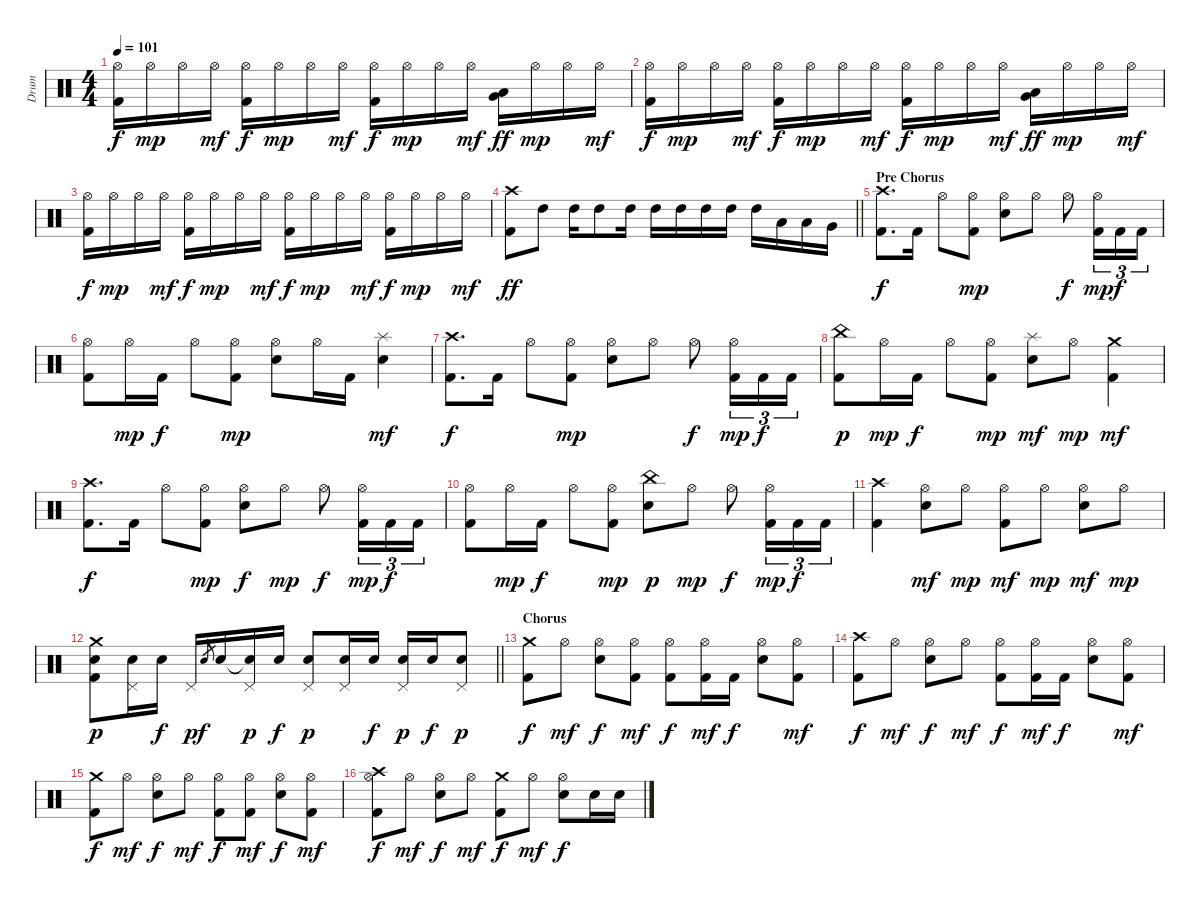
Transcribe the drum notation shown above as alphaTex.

\track ("Drum" "Drum") {instrument percussion}
\staff {score}
\articulation defaults
\ts (4 4)
\tempo 101
\clef neutral
\ks c
("Hi-Hat (open)" "Kick (hit) 2").16{dy f} "Hi-Hat (open)".16{dy mp} "Hi-Hat (open)".16 "Hi-Hat (open)".16{dy mf} ("Hi-Hat (open)" "Kick (hit) 2").16{dy f} "Hi-Hat (open)".16{dy mp} "Hi-Hat (open)".16 "Hi-Hat (open)".16{dy mf} ("Hi-Hat (open)" "Kick (hit) 2").16{dy f} "Hi-Hat (open)".16{dy mp} "Hi-Hat (open)".16 "Hi-Hat (open)".16{dy mf} ("Low Tom (hit)" "Very Low Tom (hit)").16{dy ff} "Hi-Hat (open)".16{dy mp} "Hi-Hat (open)".16 "Hi-Hat (open)".16{dy mf} |
("Hi-Hat (open)" "Kick (hit) 2").16{dy f} "Hi-Hat (open)".16{dy mp} "Hi-Hat (open)".16 "Hi-Hat (open)".16{dy mf} ("Hi-Hat (open)" "Kick (hit) 2").16{dy f} "Hi-Hat (open)".16{dy mp} "Hi-Hat (open)".16 "Hi-Hat (open)".16{dy mf} ("Hi-Hat (open)" "Kick (hit) 2").16{dy f} "Hi-Hat (open)".16{dy mp} "Hi-Hat (open)".16 "Hi-Hat (open)".16{dy mf} ("Very Low Tom (hit)" "Low Floor Tom (hit)").16{dy ff} "Hi-Hat (open)".16{dy mp} "Hi-Hat (open)".16 "Hi-Hat (open)".16{dy mf} |
("Hi-Hat (open)" "Kick (hit) 2").16{dy f} "Hi-Hat (open)".16{dy mp} "Hi-Hat (open)".16 "Hi-Hat (open)".16{dy mf} ("Hi-Hat (open)" "Kick (hit) 2").16{dy f} "Hi-Hat (open)".16{dy mp} "Hi-Hat (open)".16 "Hi-Hat (open)".16{dy mf} ("Hi-Hat (open)" "Kick (hit) 2").16{dy f} "Hi-Hat (open)".16{dy mp} "Hi-Hat (open)".16 "Hi-Hat (open)".16{dy mf} ("Hi-Hat (open)" "Kick (hit) 2").16{dy f} "Hi-Hat (open)".16{dy mp} "Hi-Hat (open)".16 "Hi-Hat (open)".16{dy mf} |
\barLineRight lightlight
("Crash high (hit)" "Kick (hit) 2").8{dy ff} "High Tom (hit)".8 "High Tom (hit)".16 "High Tom (hit)".8 "High Tom (hit)".16 "High Tom (hit)".16 "High Tom (hit)".16 "High Tom (hit)".16 "High Tom (hit)".16 "High Tom (hit)".16 "Low Tom (hit)".16 "Low Tom (hit)".16 "Very Low Tom (hit)".16 |
\section ("" "Pre Chorus")
("Crash high (hit)" "Kick (hit) 2").8{d dy f} "Kick (hit) 2".16 "Hi-Hat (open)".8 ("Hi-Hat (open)" "Kick (hit) 2").8{dy mp} ("Hi-Hat (open)" "Snare (hit) 2").8 "Hi-Hat (open)".8 "Hi-Hat (open)".8{dy f} ("Hi-Hat (open)" "Kick (hit) 2").16{tu (3 2) dy mp} "Kick (hit) 2".16{tu (3 2) dy f} "Kick (hit) 2".16{tu (3 2)} |
("Hi-Hat (open)" "Kick (hit) 2").8 "Hi-Hat (open)".16{dy mp} "Kick (hit) 2".16{dy f} "Hi-Hat (open)".8 ("Hi-Hat (open)" "Kick (hit) 2").8{dy mp} ("Hi-Hat (open)" "Snare (hit) 2").8 "Hi-Hat (open)".16 "Kick (hit) 2".16 ("Splash (hit)" "Snare (hit) 2").4{dy mf} |
("Crash high (hit)" "Kick (hit) 2").8{d dy f} "Kick (hit) 2".16 "Hi-Hat (open)".8 ("Hi-Hat (open)" "Kick (hit) 2").8{dy mp} ("Hi-Hat (open)" "Snare (hit) 2").8 "Hi-Hat (open)".8 "Hi-Hat (open)".8{dy f} ("Hi-Hat (open)" "Kick (hit) 2").16{tu (3 2) dy mp} "Kick (hit) 2".16{tu (3 2) dy f} "Kick (hit) 2".16{tu (3 2)} |
("China (hit)" "Kick (hit) 2").8{dy p} "Hi-Hat (open)".16{dy mp} "Kick (hit) 2".16{dy f} "Hi-Hat (open)".8 ("Hi-Hat (open)" "Kick (hit) 2").8{dy mp} ("Splash (hit)" "Snare (hit) 2").8{dy mf} "Hi-Hat (open)".8{dy mp} ("Crash medium (hit)" "Kick (hit) 2").4{dy mf} |
("Crash high (hit)" "Kick (hit) 2").8{d dy f} "Kick (hit) 2".16 "Hi-Hat (open)".8 ("Hi-Hat (open)" "Kick (hit) 2").8{dy mp} ("Hi-Hat (open)" "Snare (hit) 2").8{dy f} "Hi-Hat (open)".8{dy mp} "Hi-Hat (open)".8{dy f} ("Hi-Hat (open)" "Kick (hit) 2").16{tu (3 2) dy mp} "Kick (hit) 2".16{tu (3 2) dy f} "Kick (hit) 2".16{tu (3 2)} |
("Hi-Hat (open)" "Kick (hit) 2").8 "Hi-Hat (open)".16{dy mp} "Kick (hit) 2".16{dy f} "Hi-Hat (open)".8 ("Hi-Hat (open)" "Kick (hit) 2").8{dy mp} ("China (hit)" "Snare (hit) 2").8{dy p} "Hi-Hat (open)".8{dy mp} "Hi-Hat (open)".8{dy f} ("Hi-Hat (open)" "Kick (hit) 2").16{tu (3 2) dy mp} "Kick (hit) 2".16{tu (3 2) dy f} "Kick (hit) 2".16{tu (3 2)} |
("Crash high (hit)" "Kick (hit) 2").4 ("Hi-Hat (open)" "Snare (hit) 2").8{dy mf} "Hi-Hat (open)".8{dy mp} ("Hi-Hat (open)" "Kick (hit) 2").8{dy mf} "Hi-Hat (open)".8{dy mp} ("Hi-Hat (open)" "Snare (hit) 2").8{dy mf} "Hi-Hat (open)".8{dy mp} |
\barLineRight lightlight
("Crash medium (hit)" "Snare (hit) 2" "Kick (hit) 2").8{dy p} ("Snare (hit) 2" "Pedal Hi-Hat (hit)").16 "Snare (hit) 2".16{dy f} "Pedal Hi-Hat (hit)".16{dy p} "Snare (hit) 2".8{gr dy f} "Snare (hit) 2".16 ("Snare (hit)"{t} "Pedal Hi-Hat (hit)").16{dy p} "Snare (hit) 2".16{dy f} ("Snare (hit) 2" "Pedal Hi-Hat (hit)").8{dy p} ("Snare (hit) 2" "Pedal Hi-Hat (hit)").16 "Snare (hit) 2".16{dy f} ("Snare (hit) 2" "Pedal Hi-Hat (hit)").16{dy p} "Snare (hit) 2".16{dy f} ("Snare (hit) 2" "Pedal Hi-Hat (hit)").8{dy p} |
\section ("" "Chorus")
("Crash medium (hit)" "Kick (hit) 2").8{dy f} "Hi-Hat (open)".8{dy mf} ("Hi-Hat (open)" "Snare (hit) 2").8{dy f} ("Hi-Hat (open)" "Kick (hit) 2").8{dy mf} ("Hi-Hat (open)" "Kick (hit) 2").8{dy f} ("Hi-Hat (open)" "Kick (hit) 2").16{dy mf} "Kick (hit) 2".16{dy f} ("Hi-Hat (open)" "Snare (hit) 2").8 ("Hi-Hat (open)" "Kick (hit) 2").8{dy mf} |
("Crash high (hit)" "Kick (hit) 2").8{dy f} "Hi-Hat (open)".8{dy mf} ("Hi-Hat (open)" "Snare (hit) 2").8{dy f} "Hi-Hat (open)".8{dy mf} ("Hi-Hat (open)" "Kick (hit) 2").8{dy f} ("Hi-Hat (open)" "Kick (hit) 2").16{dy mf} "Kick (hit) 2".16{dy f} ("Hi-Hat (open)" "Snare (hit) 2").8 ("Hi-Hat (open)" "Kick (hit) 2").8{dy mf} |
("Crash medium (hit)" "Kick (hit) 2").8{dy f} "Hi-Hat (open)".8{dy mf} ("Hi-Hat (open)" "Snare (hit) 2").8{dy f} "Hi-Hat (open)".8{dy mf} ("Hi-Hat (open)" "Kick (hit) 2").8{dy f} ("Hi-Hat (open)" "Kick (hit) 2").8{dy mf} ("Hi-Hat (open)" "Snare (hit) 2").8{dy f} ("Hi-Hat (open)" "Kick (hit) 2").8{dy mf} |
("Crash high (hit)" "Hi-Hat (open)" "Kick (hit) 2").8{dy f} "Hi-Hat (open)".8{dy mf} ("Hi-Hat (open)" "Snare (hit) 2").8{dy f} "Hi-Hat (open)".8{dy mf} ("Crash medium (hit)" "Kick (hit) 2").8{dy f} "Hi-Hat (open)".8{dy mf} ("Hi-Hat (open)" "Snare (hit) 2").8{dy f} "Snare (hit) 2".16 "Snare (hit) 2".16
